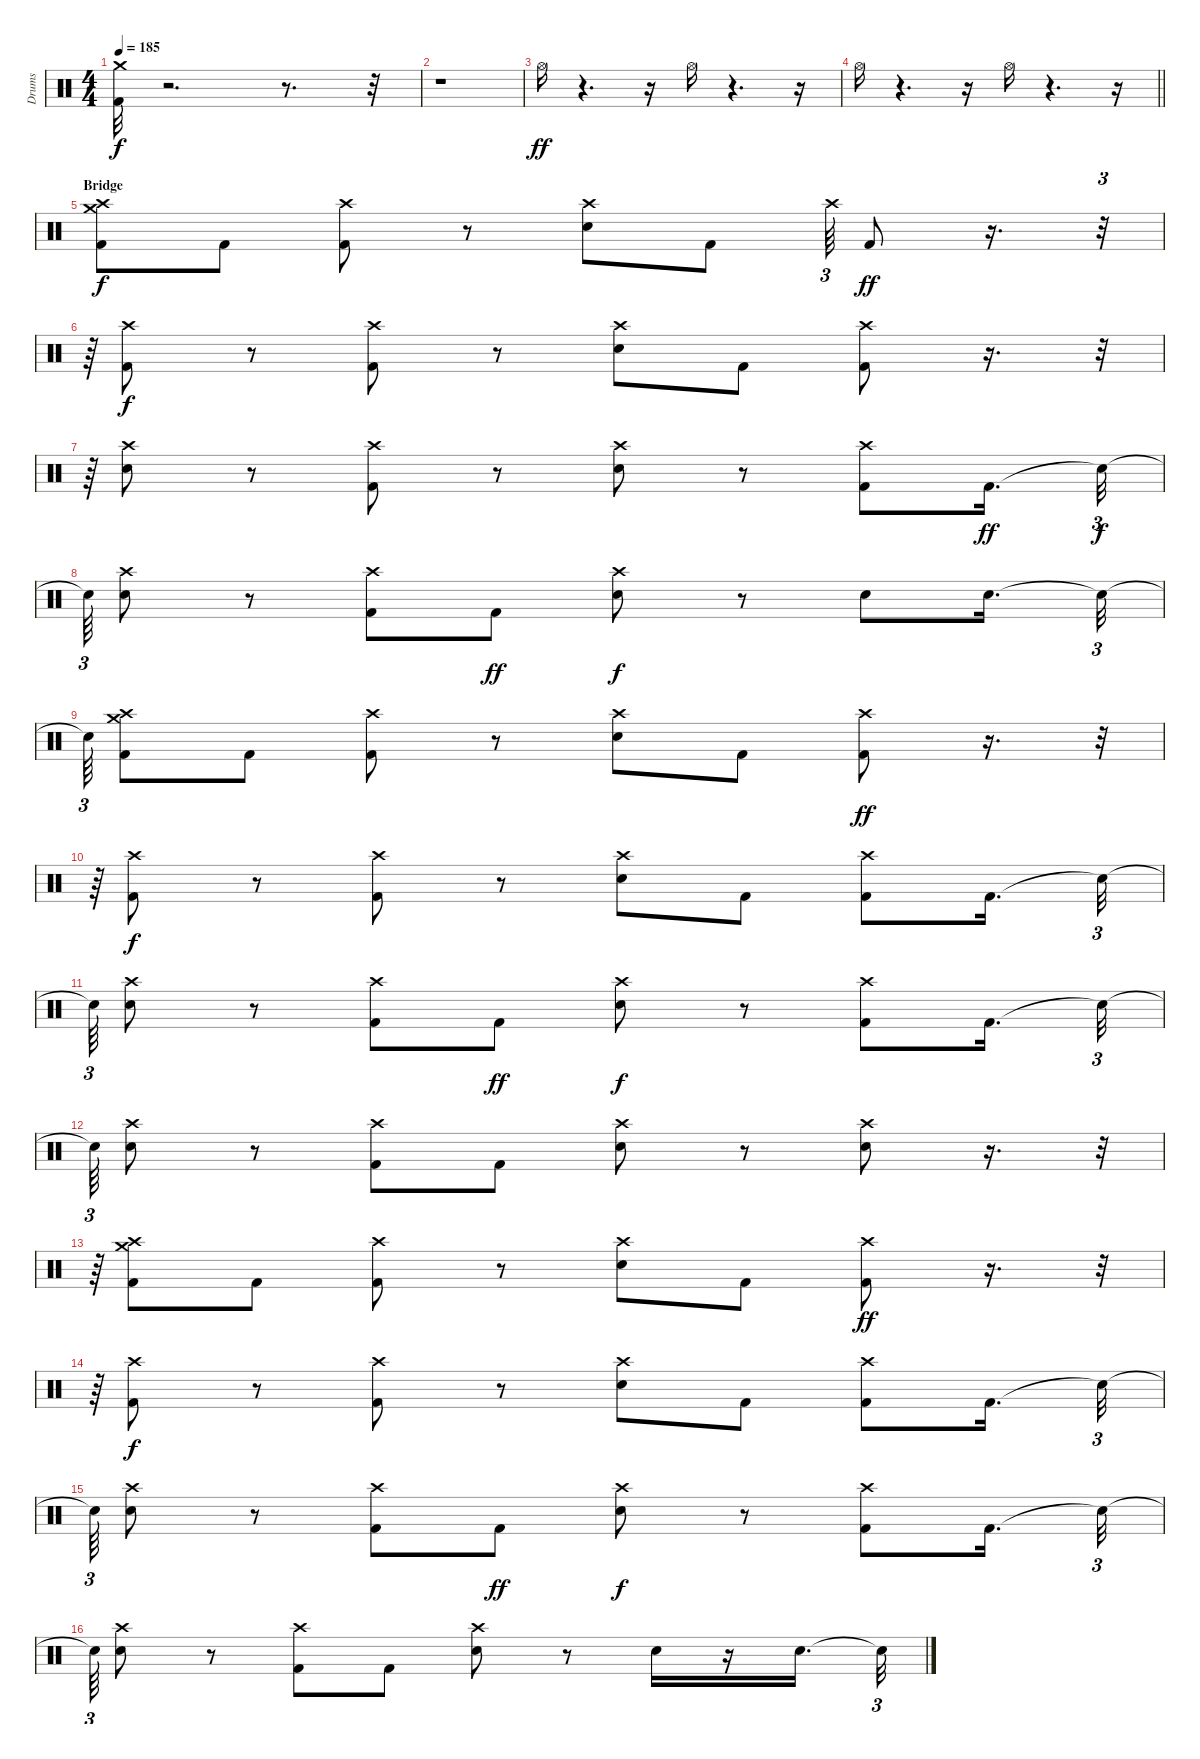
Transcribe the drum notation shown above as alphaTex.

\track ("Drums" "Drums") {instrument percussion}
\staff {score}
\articulation defaults
\ts (4 4)
\tempo 185
\clef neutral
\ks c
("Crash medium (hit)" "Kick (hit) 2").32{dy f} r.2{d} r.8{d} r.32 |
r.1 |
"Hi-Hat (open)".16{dy ff} r.4{d} r.16 "Hi-Hat (open)".16 r.4{d} r.16 |
\barLineRight lightlight "Hi-Hat (open)".16
r.4{d} r.16 "Hi-Hat (open)".16 r.4{d} r.16 |
\section ("" "Bridge")
("Crash high (hit)" "Crash medium (hit)" "Kick (hit) 2").8{dy f} "Kick (hit) 2".8 ("Kick (hit) 2" "Crash high (hit)").8 r.8 ("Electric Snare (hit)" "Crash high (hit)").8 "Kick (hit) 2".8 "Crash high (hit)".64{tu (3 2)} "Kick (hit) 2".8{dy ff} r.16{d} r.32{tu (3 2)} |
r.64{tu (3 2)} ("Kick (hit) 2" "Crash high (hit)").8{dy f} r.8 ("Kick (hit) 2" "Crash high (hit)").8 r.8 ("Electric Snare (hit)" "Crash high (hit)").8 "Kick (hit) 2".8 ("Kick (hit) 2" "Crash high (hit)").8 r.16{d} r.32{tu (3 2)} |
r.64{tu (3 2)} ("Crash high (hit)" "Electric Snare (hit)").8 r.8 ("Kick (hit) 2" "Crash high (hit)").8 r.8 ("Crash high (hit)" "Electric Snare (hit)").8 r.8 ("Kick (hit) 2" "Crash high (hit)").8 "Kick (hit) 2".16{d dy ff} "Snare (hit)"{t}.32{tu (3 2) dy f} |
"Snare (hit)"{t}.64{tu (3 2)} ("Electric Snare (hit)" "Crash high (hit)").8 r.8 ("Kick (hit) 2" "Crash high (hit)").8 "Kick (hit) 2".8{dy ff} ("Electric Snare (hit)" "Crash high (hit)").8{dy f} r.8 "Electric Snare (hit)".8 "Electric Snare (hit)".16{d} "Snare (hit)"{t}.32{tu (3 2)} |
"Snare (hit)"{t}.64{tu (3 2)} ("Crash high (hit)" "Crash medium (hit)" "Kick (hit) 2").8 "Kick (hit) 2".8 ("Crash high (hit)" "Kick (hit) 2").8 r.8 ("Crash high (hit)" "Electric Snare (hit)").8 "Kick (hit) 2".8 ("Crash high (hit)" "Kick (hit) 2").8{dy ff} r.16{d} r.32{tu (3 2)} |
r.64{tu (3 2)} ("Kick (hit) 2" "Crash high (hit)").8{dy f} r.8 ("Crash high (hit)" "Kick (hit) 2").8 r.8 ("Electric Snare (hit)" "Crash high (hit)").8 "Kick (hit) 2".8 ("Kick (hit) 2" "Crash high (hit)").8 "Kick (hit) 2".16{d} "Snare (hit)"{t}.32{tu (3 2)} |
"Snare (hit)"{t}.64{tu (3 2)} ("Crash high (hit)" "Electric Snare (hit)").8 r.8 ("Crash high (hit)" "Kick (hit) 2").8 "Kick (hit) 2".8{dy ff} ("Crash high (hit)" "Electric Snare (hit)").8{dy f} r.8 ("Crash high (hit)" "Kick (hit) 2").8 "Kick (hit) 2".16{d} "Snare (hit)"{t}.32{tu (3 2)} |
"Snare (hit)"{t}.64{tu (3 2)} ("Crash high (hit)" "Electric Snare (hit)").8 r.8 ("Crash high (hit)" "Kick (hit) 2").8 "Kick (hit) 2".8 ("Electric Snare (hit)" "Crash high (hit)").8 r.8 ("Electric Snare (hit)" "Crash high (hit)").8 r.16{d} r.32{tu (3 2)} |
r.64{tu (3 2)} ("Crash high (hit)" "Crash medium (hit)" "Kick (hit) 2").8 "Kick (hit) 2".8 ("Crash high (hit)" "Kick (hit) 2").8 r.8 ("Electric Snare (hit)" "Crash high (hit)").8 "Kick (hit) 2".8 ("Kick (hit) 2" "Crash high (hit)").8{dy ff} r.16{d} r.32{tu (3 2)} |
r.64{tu (3 2)} ("Kick (hit) 2" "Crash high (hit)").8{dy f} r.8 ("Kick (hit) 2" "Crash high (hit)").8 r.8 ("Crash high (hit)" "Electric Snare (hit)").8 "Kick (hit) 2".8 ("Crash high (hit)" "Kick (hit) 2").8 "Kick (hit) 2".16{d} "Snare (hit)"{t}.32{tu (3 2)} |
"Snare (hit)"{t}.64{tu (3 2)} ("Electric Snare (hit)" "Crash high (hit)").8 r.8 ("Crash high (hit)" "Kick (hit) 2").8 "Kick (hit) 2".8{dy ff} ("Crash high (hit)" "Electric Snare (hit)").8{dy f} r.8 ("Crash high (hit)" "Kick (hit) 2").8 "Kick (hit) 2".16{d} "Snare (hit)"{t}.32{tu (3 2)} |
"Snare (hit)"{t}.64{tu (3 2)} ("Electric Snare (hit)" "Crash high (hit)").8 r.8 ("Crash high (hit)" "Kick (hit) 2").8 "Kick (hit) 2".8 ("Crash high (hit)" "Electric Snare (hit)").8 r.8 "Electric Snare (hit)".16 r.16 "Electric Snare (hit)".16{d} "Snare (hit)"{t}.32{tu (3 2)}
